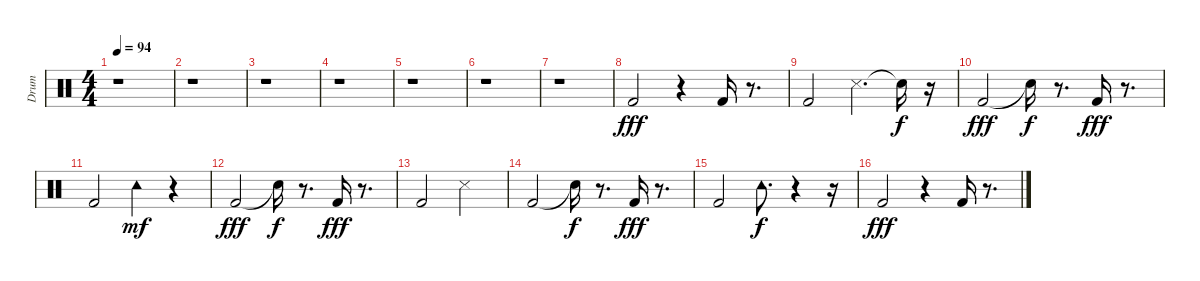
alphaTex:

\track ("Drum                    " "Drum      ") {instrument percussion}
\staff {score}
\articulation defaults
\ts (4 4)
\tempo 94
\clef neutral
\ks c
r.1{dy fff} |
r.1 |
r.1 |
r.1 |
r.1 |
r.1 |
r.1 |
"Kick (hit) 2".2{volume 11} r.4 "Kick (hit) 2".16 r.8{d} |
"Kick (hit) 2".2 "Snare (side stick) 3".4{d} "Snare (hit)"{t}.16{dy f} r.16 |
"Kick (hit) 2".2{dy fff} "Snare (hit)"{t}.16{dy f} r.8{d} "Kick (hit) 2".16{dy fff} r.8{d} |
"Kick (hit) 2".2 "Tambourine (hit)".4{dy mf} r.4 |
"Kick (hit) 2".2{dy fff} "Snare (hit)"{t}.16{dy f} r.8{d} "Kick (hit) 2".16{dy fff} r.8{d} |
"Kick (hit) 2".2 "Snare (side stick) 3".2 |
"Kick (hit) 2".2 "Snare (hit)"{t}.16{dy f} r.8{d} "Kick (hit) 2".16{dy fff} r.8{d} |
"Kick (hit) 2".2 "Tambourine (hit)".8{d dy f} r.4 r.16 |
"Kick (hit) 2".2{dy fff} r.4 "Kick (hit) 2".16 r.8{d}
